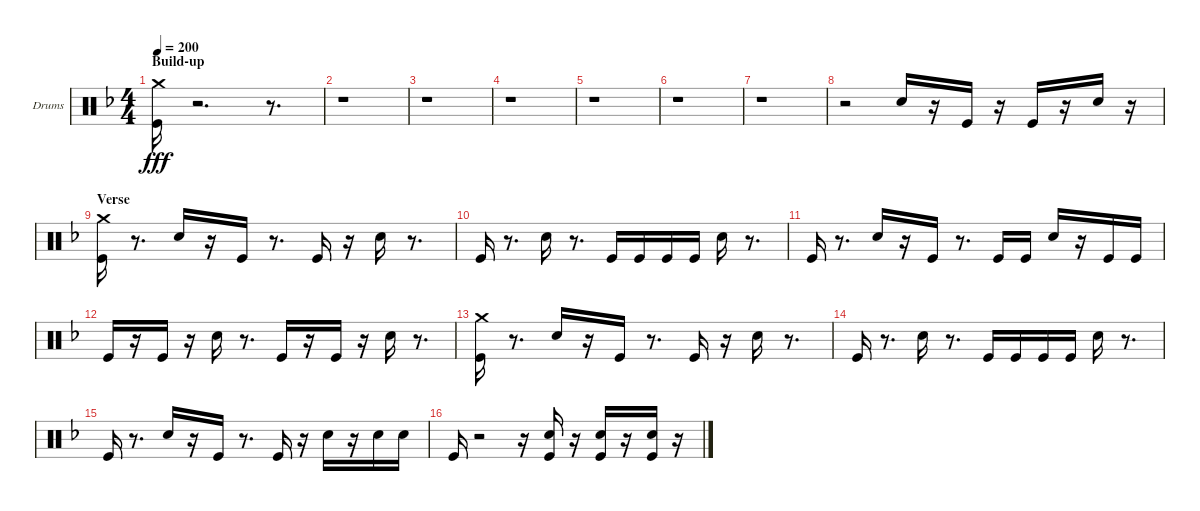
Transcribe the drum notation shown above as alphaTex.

\bracketExtendMode groupsimilarinstruments
\firstSystemTrackNameOrientation horizontal
\otherSystemsTrackNameOrientation horizontal
\track ("Drumkit" "Drums") {instrument percussion}
\staff {score}
\articulation defaults
\ts (4 4)
\section ("" "Build-up")
\tempo 200
\clef neutral
\scale
0.333333
\ks dminor
("Crash medium (hit)" "Kick (hit)").16{dy fff} r.2{d} r.8{d} |
\scale
0.333333 r.1 |
\scale
0.333333 r.1 |
\scale
0.333333 r.1 |
\scale
0.333333 r.1 |
\scale
0.333333 r.1 |
\scale
0.333333 r.1 |
\scale
0.333333 r.2 "Snare (hit) 2".16 r.16 "Kick (hit)".16 r.16 "Kick (hit)".16 r.16 "Snare (hit) 2".16 r.16 |
\section ("" "Verse")
\scale
0.333333 ("Crash medium (hit)" "Kick (hit)").16 r.8{d} "Snare (hit) 2".16 r.16 "Kick (hit)".16 r.8{d} "Kick (hit)".16 r.16 "Snare (hit) 2".16 r.8{d} |
\scale
0.333333 "Kick (hit)".16 r.8{d} "Snare (hit) 2".16 r.8{d} "Kick (hit)".16 "Kick (hit)".16 "Kick (hit)".16 "Kick (hit)".16 "Snare (hit) 2".16 r.8{d} |
\scale
0.333333 "Kick (hit)".16 r.8{d} "Snare (hit) 2".16 r.16 "Kick (hit)".16 r.8{d} "Kick (hit)".16 "Kick (hit)".16 "Snare (hit) 2".16 r.16 "Kick (hit)".16 "Kick (hit)".16 |
\scale
0.333333 "Kick (hit)".16 r.16 "Kick (hit)".16 r.16 "Snare (hit) 2".16 r.8{d} "Kick (hit)".16 r.16 "Kick (hit)".16 r.16 "Snare (hit) 2".16 r.8{d} |
\scale
0.333333 ("Crash medium (hit)" "Kick (hit)").16 r.8{d} "Snare (hit) 2".16 r.16 "Kick (hit)".16 r.8{d} "Kick (hit)".16 r.16 "Snare (hit) 2".16 r.8{d} |
\scale
0.333333 "Kick (hit)".16 r.8{d} "Snare (hit) 2".16 r.8{d} "Kick (hit)".16 "Kick (hit)".16 "Kick (hit)".16 "Kick (hit)".16 "Snare (hit) 2".16 r.8{d} |
\scale
0.333333 "Kick (hit)".16 r.8{d} "Snare (hit) 2".16 r.16 "Kick (hit)".16 r.8{d} "Kick (hit)".16 r.16 "Snare (hit) 2".16 r.16 "Snare (hit) 2".16 "Snare (hit) 2".16 |
\scale
0.333333 "Kick (hit)".16 r.2 r.16 ("Kick (hit)" "Snare (hit) 2").16 r.16 ("Kick (hit)" "Snare (hit) 2").16 r.16 ("Kick (hit)" "Snare (hit) 2").16 r.16
